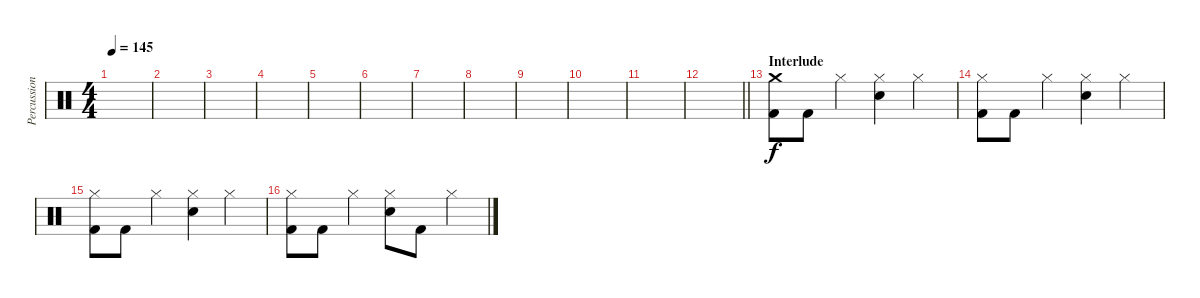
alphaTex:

\track ("Percussion" "Percussion") {instrument percussion}
\staff {score}
\articulation defaults
\ts (4 4)
\tempo 145
\clef neutral
\ks c
|
|
|
|
|
|
|
|
|
|
|
\barLineRight lightlight
|
\section ("" "Interlude")
("Crash medium (hit)" "Kick (hit) 2").8 "Kick (hit) 2".8 "Hi-Hat (closed)".4 ("Hi-Hat (closed)" "Electric Snare (hit)").4 "Hi-Hat (closed)".4 |
("Hi-Hat (closed)" "Kick (hit) 2").8 "Kick (hit) 2".8 "Hi-Hat (closed)".4 ("Hi-Hat (closed)" "Electric Snare (hit)").4 "Hi-Hat (closed)".4 |
("Hi-Hat (closed)" "Kick (hit) 2").8 "Kick (hit) 2".8 "Hi-Hat (closed)".4 ("Hi-Hat (closed)" "Electric Snare (hit)").4 "Hi-Hat (closed)".4 |
("Hi-Hat (closed)" "Kick (hit) 2").8 "Kick (hit) 2".8 "Hi-Hat (closed)".4 ("Hi-Hat (closed)" "Electric Snare (hit)").8 "Kick (hit) 2".8 "Hi-Hat (closed)".4
